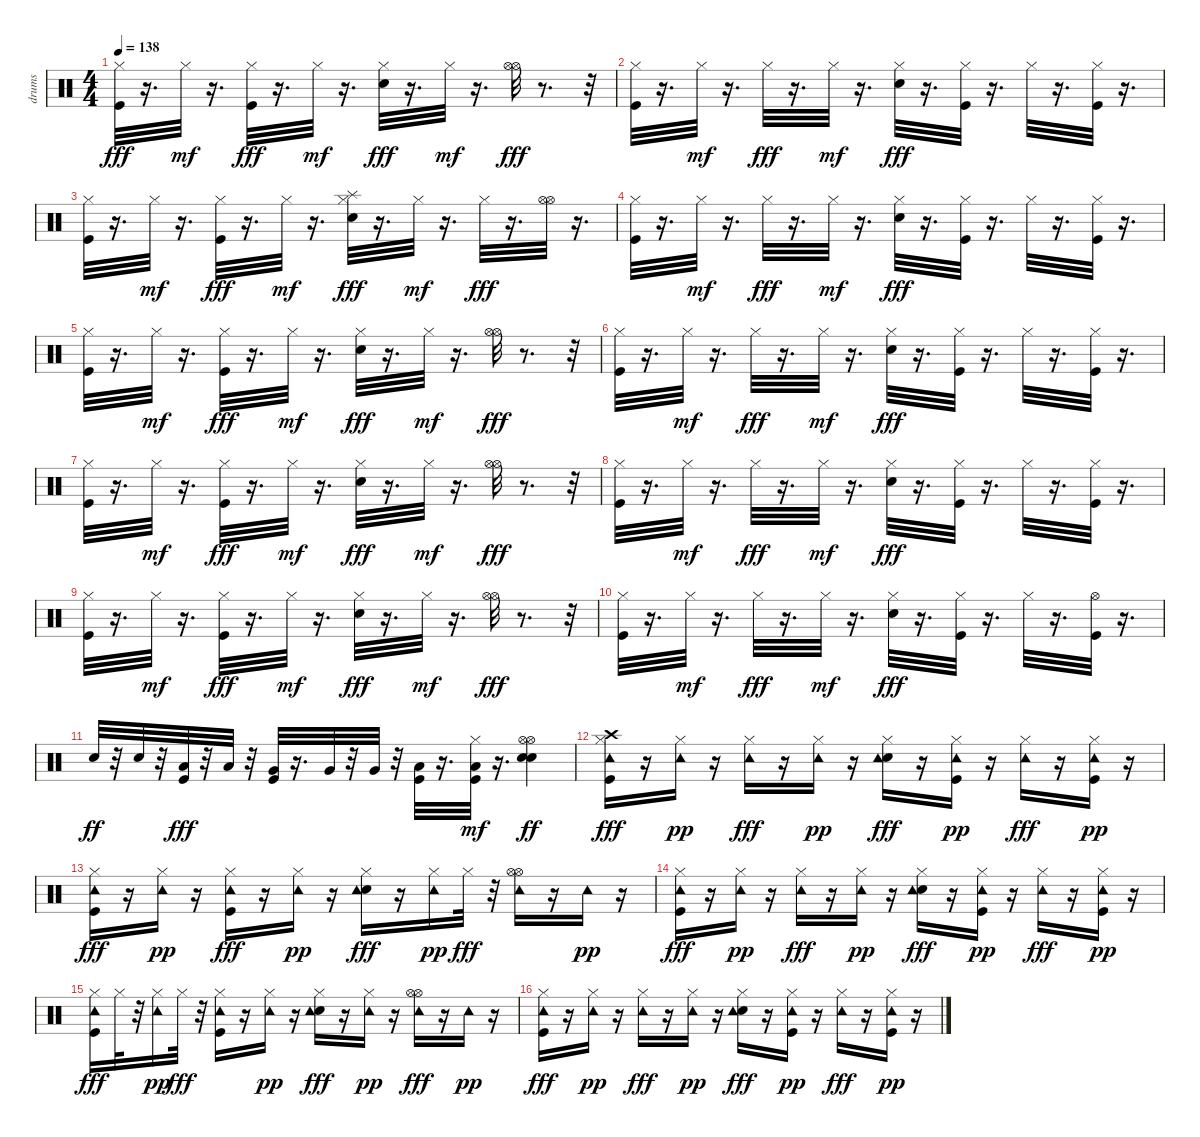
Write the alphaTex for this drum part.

\track ("drums" "drums") {instrument percussion}
\staff {score}
\articulation defaults
\ts (4 4)
\tempo 138
\clef neutral
\ks c
("Hi-Hat (closed)" "Kick (hit)").32{dy fff} r.16{d} "Hi-Hat (closed)".32{dy mf} r.16{d} ("Hi-Hat (closed)" "Kick (hit)").32{dy fff} r.16{d} "Hi-Hat (closed)".32{dy mf} r.16{d} ("Metronome (bell)" "Hi-Hat (closed)").32{dy fff} r.16{d} "Hi-Hat (closed)".32{dy mf} r.16{d} ("Hi-Hat (open)" "Hi-Hat (open)").32{dy fff} r.8{d} r.32 |
("Hi-Hat (closed)" "Kick (hit)").32 r.16{d} "Hi-Hat (closed)".32{dy mf} r.16{d} "Hi-Hat (closed)".32{dy fff} r.16{d} "Hi-Hat (closed)".32{dy mf} r.16{d} ("Metronome (bell)" "Hi-Hat (closed)").32{dy fff} r.16{d} ("Hi-Hat (closed)" "Kick (hit)").32 r.16{d} "Hi-Hat (closed)".32 r.16{d} ("Hi-Hat (closed)" "Kick (hit)").32 r.16{d} |
("Hi-Hat (closed)" "Kick (hit)").32 r.16{d} "Hi-Hat (closed)".32{dy mf} r.16{d} ("Hi-Hat (closed)" "Kick (hit)").32{dy fff} r.16{d} "Hi-Hat (closed)".32{dy mf} r.16{d} ("Metronome (bell)" "Hi-Hat (closed)" "Splash (hit)").32{dy fff} r.16{d} "Hi-Hat (closed)".32{dy mf} r.16{d} "Hi-Hat (closed)".32{dy fff} r.16{d} ("Hi-Hat (open)" "Hi-Hat (open)").32 r.16{d} |
("Hi-Hat (closed)" "Kick (hit)").32 r.16{d} "Hi-Hat (closed)".32{dy mf} r.16{d} "Hi-Hat (closed)".32{dy fff} r.16{d} "Hi-Hat (closed)".32{dy mf} r.16{d} ("Metronome (bell)" "Hi-Hat (closed)").32{dy fff} r.16{d} ("Hi-Hat (closed)" "Kick (hit)").32 r.16{d} "Hi-Hat (closed)".32 r.16{d} ("Hi-Hat (closed)" "Kick (hit)").32 r.16{d} |
("Hi-Hat (closed)" "Kick (hit)").32 r.16{d} "Hi-Hat (closed)".32{dy mf} r.16{d} ("Hi-Hat (closed)" "Kick (hit)").32{dy fff} r.16{d} "Hi-Hat (closed)".32{dy mf} r.16{d} ("Metronome (bell)" "Hi-Hat (closed)").32{dy fff} r.16{d} "Hi-Hat (closed)".32{dy mf} r.16{d} ("Hi-Hat (open)" "Hi-Hat (open)").32{dy fff} r.8{d} r.32 |
("Hi-Hat (closed)" "Kick (hit)").32 r.16{d} "Hi-Hat (closed)".32{dy mf} r.16{d} "Hi-Hat (closed)".32{dy fff} r.16{d} "Hi-Hat (closed)".32{dy mf} r.16{d} ("Metronome (bell)" "Hi-Hat (closed)").32{dy fff} r.16{d} ("Hi-Hat (closed)" "Kick (hit)").32 r.16{d} "Hi-Hat (closed)".32 r.16{d} ("Hi-Hat (closed)" "Kick (hit)").32 r.16{d} |
("Hi-Hat (closed)" "Kick (hit)").32 r.16{d} "Hi-Hat (closed)".32{dy mf} r.16{d} ("Hi-Hat (closed)" "Kick (hit)").32{dy fff} r.16{d} "Hi-Hat (closed)".32{dy mf} r.16{d} ("Metronome (bell)" "Hi-Hat (closed)").32{dy fff} r.16{d} "Hi-Hat (closed)".32{dy mf} r.16{d} ("Hi-Hat (open)" "Hi-Hat (open)").32{dy fff} r.8{d} r.32 |
("Hi-Hat (closed)" "Kick (hit)").32 r.16{d} "Hi-Hat (closed)".32{dy mf} r.16{d} "Hi-Hat (closed)".32{dy fff} r.16{d} "Hi-Hat (closed)".32{dy mf} r.16{d} ("Metronome (bell)" "Hi-Hat (closed)").32{dy fff} r.16{d} ("Hi-Hat (closed)" "Kick (hit)").32 r.16{d} "Hi-Hat (closed)".32 r.16{d} ("Hi-Hat (closed)" "Kick (hit)").32 r.16{d} |
("Hi-Hat (closed)" "Kick (hit)").32 r.16{d} "Hi-Hat (closed)".32{dy mf} r.16{d} ("Hi-Hat (closed)" "Kick (hit)").32{dy fff} r.16{d} "Hi-Hat (closed)".32{dy mf} r.16{d} ("Metronome (bell)" "Hi-Hat (closed)").32{dy fff} r.16{d} "Hi-Hat (closed)".32{dy mf} r.16{d} ("Hi-Hat (open)" "Hi-Hat (open)").32{dy fff} r.8{d} r.32 |
("Hi-Hat (closed)" "Kick (hit)").32 r.16{d} "Hi-Hat (closed)".32{dy mf} r.16{d} "Hi-Hat (closed)".32{dy fff} r.16{d} "Hi-Hat (closed)".32{dy mf} r.16{d} ("Metronome (bell)" "Hi-Hat (closed)").32{dy fff} r.16{d} ("Hi-Hat (closed)" "Kick (hit)").32 r.16{d} "Hi-Hat (closed)".32 r.16{d} ("Hi-Hat (open)" "Kick (hit)").32 r.16{d} |
"Metronome (bell)".32{dy ff} r.32 "Metronome (bell)".32 r.32 ("Low Tom (hit)" "Kick (hit)").32{dy fff} r.32 "Low Tom (hit)".32 r.32 ("Very Low Tom (hit)" "Kick (hit)").32 r.16{d} "Very Low Tom (hit)".32 r.32 "Very Low Tom (hit)".32 r.32 ("Low Floor Tom (hit)" "Kick (hit)").32 r.16{d} ("Low Floor Tom (hit)" "Kick (hit)" "Hi-Hat (closed)").32{dy mf} r.16{d} ("Metronome (bell)" "Hi-Hat (open)" "Hi-Hat (open)" "Metronome (bell)").4{dy ff} |
("Crash high (hit)" "Hi-Hat (closed)" "Kick (hit)" "Tambourine (hit)").16{dy fff} r.16 ("Hi-Hat (closed)" "Tambourine (hit)").16{dy pp} r.16 ("Hi-Hat (closed)" "Tambourine (hit)").16{dy fff} r.16 ("Hi-Hat (closed)" "Tambourine (hit)").16{dy pp} r.16 ("Metronome (bell)" "Hi-Hat (closed)" "Tambourine (hit)").16{dy fff} r.16 ("Hi-Hat (closed)" "Kick (hit)" "Tambourine (hit)").16{dy pp} r.16 ("Hi-Hat (closed)" "Tambourine (hit)").16{dy fff} r.16 ("Hi-Hat (closed)" "Kick (hit)" "Tambourine (hit)").16{dy pp} r.16 |
("Hi-Hat (closed)" "Kick (hit)" "Tambourine (hit)").16{dy fff} r.16 ("Hi-Hat (closed)" "Tambourine (hit)").16{dy pp} r.16 ("Hi-Hat (closed)" "Kick (hit)" "Tambourine (hit)").16{dy fff} r.16 ("Hi-Hat (closed)" "Tambourine (hit)").16{dy pp} r.16 ("Metronome (bell)" "Hi-Hat (closed)" "Tambourine (hit)").16{dy fff} r.16 ("Hi-Hat (closed)" "Tambourine (hit)").16{dy pp} "Hi-Hat (closed)".32{dy fff} r.32 ("Hi-Hat (open)" "Hi-Hat (open)" "Tambourine (hit)").16 r.16 "Tambourine (hit)".16{dy pp} r.16 |
("Hi-Hat (closed)" "Kick (hit)" "Tambourine (hit)").16{dy fff} r.16 ("Hi-Hat (closed)" "Tambourine (hit)").16{dy pp} r.16 ("Hi-Hat (closed)" "Tambourine (hit)").16{dy fff} r.16 ("Hi-Hat (closed)" "Tambourine (hit)").16{dy pp} r.16 ("Metronome (bell)" "Hi-Hat (closed)" "Tambourine (hit)").16{dy fff} r.16 ("Hi-Hat (closed)" "Kick (hit)" "Tambourine (hit)").16{dy pp} r.16 ("Hi-Hat (closed)" "Tambourine (hit)").16{dy fff} r.16 ("Hi-Hat (closed)" "Kick (hit)" "Tambourine (hit)").16{dy pp} r.16 |
("Hi-Hat (closed)" "Kick (hit)" "Tambourine (hit)").16{dy fff} "Hi-Hat (closed)".32 r.32 ("Hi-Hat (closed)" "Tambourine (hit)").16{dy pp} "Hi-Hat (closed)".32{dy fff} r.32 ("Hi-Hat (closed)" "Kick (hit)" "Tambourine (hit)").16 r.16 ("Hi-Hat (closed)" "Tambourine (hit)").16{dy pp} r.16 ("Metronome (bell)" "Hi-Hat (closed)" "Tambourine (hit)").16{dy fff} r.16 ("Hi-Hat (closed)" "Tambourine (hit)").16{dy pp} r.16 ("Hi-Hat (open)" "Hi-Hat (open)" "Tambourine (hit)").16{dy fff} r.16 "Tambourine (hit)".16{dy pp} r.16 |
("Hi-Hat (closed)" "Kick (hit)" "Tambourine (hit)").16{dy fff} r.16 ("Hi-Hat (closed)" "Tambourine (hit)").16{dy pp} r.16 ("Hi-Hat (closed)" "Tambourine (hit)").16{dy fff} r.16 ("Hi-Hat (closed)" "Tambourine (hit)").16{dy pp} r.16 ("Metronome (bell)" "Hi-Hat (closed)" "Tambourine (hit)").16{dy fff} r.16 ("Hi-Hat (closed)" "Kick (hit)" "Tambourine (hit)").16{dy pp} r.16 ("Hi-Hat (closed)" "Tambourine (hit)").16{dy fff} r.16 ("Hi-Hat (closed)" "Kick (hit)" "Tambourine (hit)").16{dy pp} r.16
